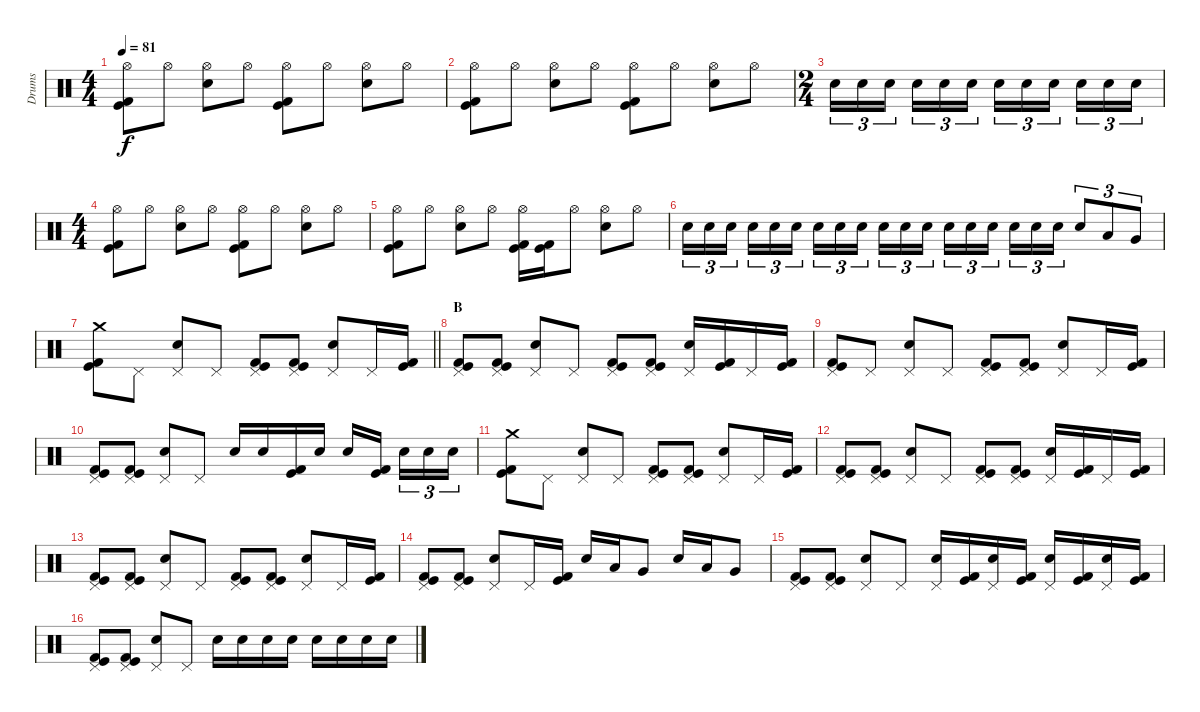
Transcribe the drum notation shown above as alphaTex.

\track ("Drums" "Drums") {instrument percussion}
\staff {score}
\articulation defaults
\ts (4 4)
\tempo 81
\clef neutral
\ks c
("Hi-Hat (open)" "Kick (hit)" "Kick (hit) 2").8{dy f} "Hi-Hat (open)".8 ("Hi-Hat (open)" "Electric Snare (hit)").8 "Hi-Hat (open)".8 ("Hi-Hat (open)" "Kick (hit)" "Kick (hit) 2").8 "Hi-Hat (open)".8 ("Hi-Hat (open)" "Electric Snare (hit)").8 "Hi-Hat (open)".8 |
("Hi-Hat (open)" "Kick (hit)" "Kick (hit) 2").8 "Hi-Hat (open)".8 ("Hi-Hat (open)" "Electric Snare (hit)").8 "Hi-Hat (open)".8 ("Hi-Hat (open)" "Kick (hit)" "Kick (hit) 2").8 "Hi-Hat (open)".8 ("Hi-Hat (open)" "Electric Snare (hit)").8 "Hi-Hat (open)".8 |
\ts (2 4)
"Electric Snare (hit)".16{tu (3 2)} "Electric Snare (hit)".16{tu (3 2)} "Electric Snare (hit)".16{tu (3 2) beam splitsecondary} "Electric Snare (hit)".16{tu (3 2)} "Electric Snare (hit)".16{tu (3 2)} "Electric Snare (hit)".16{tu (3 2)} "Electric Snare (hit)".16{tu (3 2)} "Electric Snare (hit)".16{tu (3 2)} "Electric Snare (hit)".16{tu (3 2) beam splitsecondary} "Electric Snare (hit)".16{tu (3 2)} "Electric Snare (hit)".16{tu (3 2)} "Electric Snare (hit)".16{tu (3 2)} |
\ts (4 4)
("Hi-Hat (open)" "Kick (hit)" "Kick (hit) 2").8 "Hi-Hat (open)".8 ("Hi-Hat (open)" "Electric Snare (hit)").8 "Hi-Hat (open)".8 ("Hi-Hat (open)" "Kick (hit)" "Kick (hit) 2").8 "Hi-Hat (open)".8 ("Hi-Hat (open)" "Electric Snare (hit)").8 "Hi-Hat (open)".8 |
("Hi-Hat (open)" "Kick (hit)" "Kick (hit) 2").8 "Hi-Hat (open)".8 ("Hi-Hat (open)" "Electric Snare (hit)").8 "Hi-Hat (open)".8 ("Hi-Hat (open)" "Kick (hit)" "Kick (hit) 2").16 ("Kick (hit)" "Kick (hit) 2").16 "Hi-Hat (open)".8 ("Hi-Hat (open)" "Electric Snare (hit)").8 "Hi-Hat (open)".8 |
"Electric Snare (hit)".16{tu (3 2)} "Electric Snare (hit)".16{tu (3 2)} "Electric Snare (hit)".16{tu (3 2) beam splitsecondary} "Electric Snare (hit)".16{tu (3 2)} "Electric Snare (hit)".16{tu (3 2)} "Electric Snare (hit)".16{tu (3 2)} "Electric Snare (hit)".16{tu (3 2)} "Electric Snare (hit)".16{tu (3 2)} "Electric Snare (hit)".16{tu (3 2) beam splitsecondary} "Electric Snare (hit)".16{tu (3 2)} "Electric Snare (hit)".16{tu (3 2)} "Electric Snare (hit)".16{tu (3 2)} "Electric Snare (hit)".16{tu (3 2)} "Electric Snare (hit)".16{tu (3 2)} "Electric Snare (hit)".16{tu (3 2) beam splitsecondary} "Electric Snare (hit)".16{tu (3 2)} "Electric Snare (hit)".16{tu (3 2)} "Electric Snare (hit)".16{tu (3 2)} "Electric Snare (hit)".8{tu (3 2)} "Low Tom (hit)".8{tu (3 2)} "Very Low Tom (hit)".8{tu (3 2)} |
\barLineRight lightlight
("Crash medium (hit)" "Kick (hit)" "Kick (hit) 2").8 "Pedal Hi-Hat (hit)".8 ("Pedal Hi-Hat (hit)" "Electric Snare (hit)").8 "Pedal Hi-Hat (hit)".8 ("Pedal Hi-Hat (hit)" "Kick (hit)" "Kick (hit) 2").8 ("Pedal Hi-Hat (hit)" "Kick (hit)" "Kick (hit) 2").8 ("Pedal Hi-Hat (hit)" "Electric Snare (hit)").8 "Pedal Hi-Hat (hit)".16 ("Kick (hit)" "Kick (hit) 2").16 |
\section ("" "B")
("Pedal Hi-Hat (hit)" "Kick (hit)" "Kick (hit) 2").8 ("Pedal Hi-Hat (hit)" "Kick (hit)" "Kick (hit) 2").8 ("Pedal Hi-Hat (hit)" "Electric Snare (hit)").8 "Pedal Hi-Hat (hit)".8 ("Pedal Hi-Hat (hit)" "Kick (hit)" "Kick (hit) 2").8 ("Pedal Hi-Hat (hit)" "Kick (hit)" "Kick (hit) 2").8 ("Pedal Hi-Hat (hit)" "Electric Snare (hit)").16 ("Kick (hit)" "Kick (hit) 2").16 "Pedal Hi-Hat (hit)".16 ("Kick (hit)" "Kick (hit) 2").16 |
("Pedal Hi-Hat (hit)" "Kick (hit)" "Kick (hit) 2").8 "Pedal Hi-Hat (hit)".8 ("Pedal Hi-Hat (hit)" "Electric Snare (hit)").8 "Pedal Hi-Hat (hit)".8 ("Pedal Hi-Hat (hit)" "Kick (hit)" "Kick (hit) 2").8 ("Pedal Hi-Hat (hit)" "Kick (hit)" "Kick (hit) 2").8 ("Pedal Hi-Hat (hit)" "Electric Snare (hit)").8 "Pedal Hi-Hat (hit)".16 ("Kick (hit)" "Kick (hit) 2").16 |
("Pedal Hi-Hat (hit)" "Kick (hit)" "Kick (hit) 2").8 ("Pedal Hi-Hat (hit)" "Kick (hit)" "Kick (hit) 2").8 ("Pedal Hi-Hat (hit)" "Electric Snare (hit)").8 "Pedal Hi-Hat (hit)".8 "Electric Snare (hit)".16 "Electric Snare (hit)".16 ("Kick (hit)" "Kick (hit) 2").16 "Electric Snare (hit)".16 "Electric Snare (hit)".16 ("Kick (hit)" "Kick (hit) 2").16{beam splitsecondary} "Electric Snare (hit)".16{tu (3 2)} "Electric Snare (hit)".16{tu (3 2)} "Electric Snare (hit)".16{tu (3 2)} |
("Crash medium (hit)" "Kick (hit)" "Kick (hit) 2").8 "Pedal Hi-Hat (hit)".8 ("Pedal Hi-Hat (hit)" "Electric Snare (hit)").8 "Pedal Hi-Hat (hit)".8 ("Pedal Hi-Hat (hit)" "Kick (hit)" "Kick (hit) 2").8 ("Pedal Hi-Hat (hit)" "Kick (hit)" "Kick (hit) 2").8 ("Pedal Hi-Hat (hit)" "Electric Snare (hit)").8 "Pedal Hi-Hat (hit)".16 ("Kick (hit)" "Kick (hit) 2").16 |
("Pedal Hi-Hat (hit)" "Kick (hit)" "Kick (hit) 2").8 ("Pedal Hi-Hat (hit)" "Kick (hit)" "Kick (hit) 2").8 ("Pedal Hi-Hat (hit)" "Electric Snare (hit)").8 "Pedal Hi-Hat (hit)".8 ("Pedal Hi-Hat (hit)" "Kick (hit)" "Kick (hit) 2").8 ("Pedal Hi-Hat (hit)" "Kick (hit)" "Kick (hit) 2").8 ("Pedal Hi-Hat (hit)" "Electric Snare (hit)").16 ("Kick (hit)" "Kick (hit) 2").16 "Pedal Hi-Hat (hit)".16 ("Kick (hit)" "Kick (hit) 2").16 |
("Pedal Hi-Hat (hit)" "Kick (hit)" "Kick (hit) 2").8 ("Pedal Hi-Hat (hit)" "Kick (hit)" "Kick (hit) 2").8 ("Pedal Hi-Hat (hit)" "Electric Snare (hit)").8 "Pedal Hi-Hat (hit)".8 ("Pedal Hi-Hat (hit)" "Kick (hit)" "Kick (hit) 2").8 ("Pedal Hi-Hat (hit)" "Kick (hit)" "Kick (hit) 2").8 ("Pedal Hi-Hat (hit)" "Electric Snare (hit)").8 "Pedal Hi-Hat (hit)".16 ("Kick (hit)" "Kick (hit) 2").16 |
("Pedal Hi-Hat (hit)" "Kick (hit)" "Kick (hit) 2").8 ("Pedal Hi-Hat (hit)" "Kick (hit)" "Kick (hit) 2").8 ("Pedal Hi-Hat (hit)" "Electric Snare (hit)").8 "Pedal Hi-Hat (hit)".16 ("Kick (hit)" "Kick (hit) 2").16 "Electric Snare (hit)".16 "Low Tom (hit)".16 "Very Low Tom (hit)".8 "Electric Snare (hit)".16 "Low Tom (hit)".16 "Very Low Tom (hit)".8 |
("Pedal Hi-Hat (hit)" "Kick (hit)" "Kick (hit) 2").8 ("Pedal Hi-Hat (hit)" "Kick (hit)" "Kick (hit) 2").8 ("Pedal Hi-Hat (hit)" "Electric Snare (hit)").8 "Pedal Hi-Hat (hit)".8 ("Pedal Hi-Hat (hit)" "Electric Snare (hit)").16 ("Kick (hit)" "Kick (hit) 2").16 ("Pedal Hi-Hat (hit)" "Electric Snare (hit)").16 ("Kick (hit)" "Kick (hit) 2").16 ("Pedal Hi-Hat (hit)" "Electric Snare (hit)").16 ("Kick (hit)" "Kick (hit) 2").16 ("Pedal Hi-Hat (hit)" "Electric Snare (hit)").16 ("Kick (hit)" "Kick (hit) 2").16 |
("Pedal Hi-Hat (hit)" "Kick (hit)" "Kick (hit) 2").8 ("Pedal Hi-Hat (hit)" "Kick (hit)" "Kick (hit) 2").8 ("Pedal Hi-Hat (hit)" "Electric Snare (hit)").8 "Pedal Hi-Hat (hit)".8 "Electric Snare (hit)".16 "Electric Snare (hit)".16 "Electric Snare (hit)".16 "Electric Snare (hit)".16 "Electric Snare (hit)".16 "Electric Snare (hit)".16 "Electric Snare (hit)".16 "Electric Snare (hit)".16
